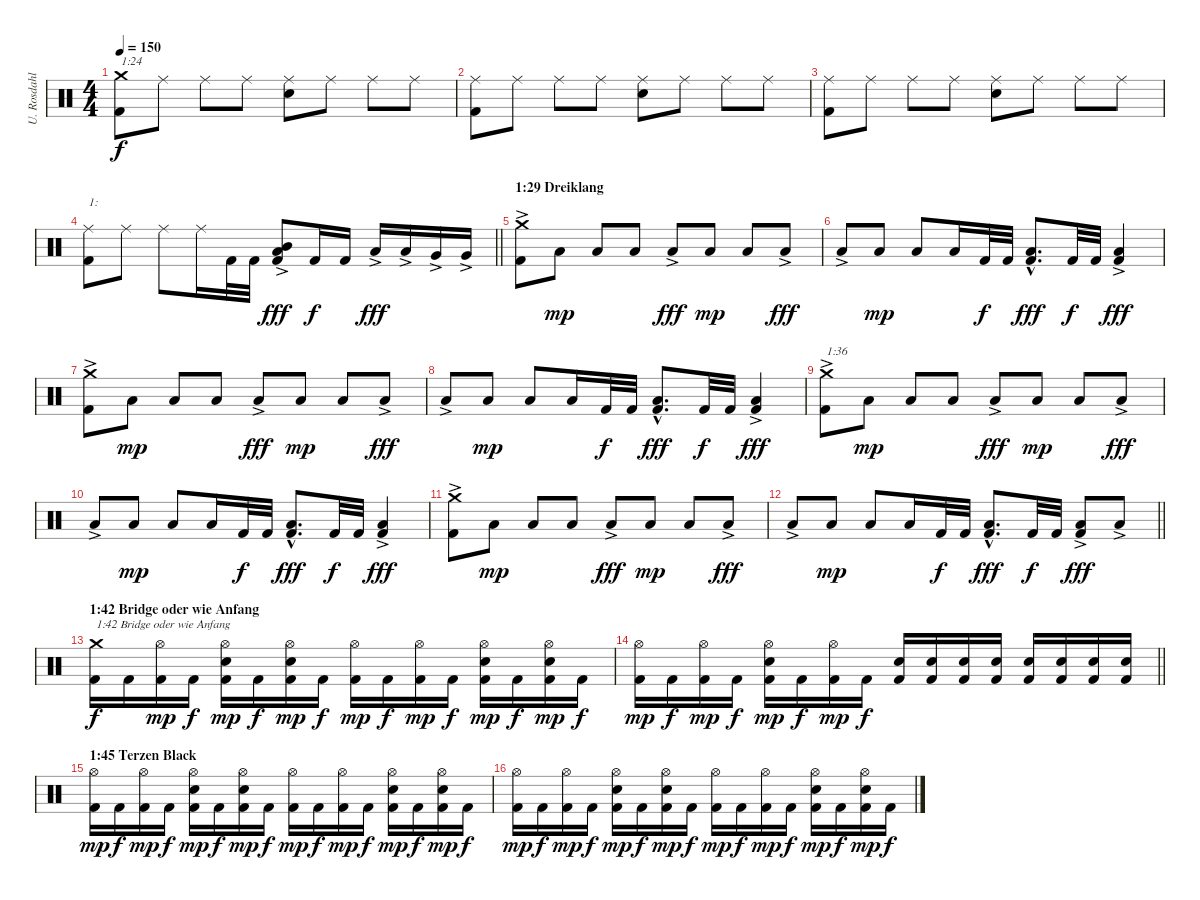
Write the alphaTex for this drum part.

\track ("U. Rosdahl" "U. Rosdahl") {instrument percussion}
\staff {score}
\articulation defaults
\ts (4 4)
\tempo 150
\clef neutral
\ks c
("Kick (hit) 2" "Crash medium (hit)").8{txt "1:24" dy f} "Ride (middle)".8 "Ride (middle)".8 "Ride (middle)".8 ("Electric Snare (hit)" "Ride (middle)").8 "Ride (middle)".8 "Ride (middle)".8 "Ride (middle)".8 |
("Kick (hit) 2" "Ride (middle)").8 "Ride (middle)".8 "Ride (middle)".8 "Ride (middle)".8 ("Electric Snare (hit)" "Ride (middle)").8 "Ride (middle)".8 "Ride (middle)".8 "Ride (middle)".8 |
("Kick (hit) 2" "Ride (middle)").8 "Ride (middle)".8 "Ride (middle)".8 "Ride (middle)".8 ("Electric Snare (hit)" "Ride (middle)").8 "Ride (middle)".8 "Ride (middle)".8 "Ride (middle)".8 |
\barLineRight lightlight
("Kick (hit) 2" "Ride (middle)").8{txt "1:"} "Ride (middle)".8 "Ride (middle)".8 "Ride (middle)".16 "Kick (hit) 2".32 "Kick (hit) 2".32 ("Kick (hit) 2" "Low Tom (hit)"{ac} "Mid Tom (hit)"{ac}).8{dy fff} "Kick (hit) 2".16{dy f} "Kick (hit) 2".16 "Low Tom (hit)"{ac}.16{dy fff} "Low Tom (hit)"{ac}.16 "Very Low Tom (hit)"{ac}.16 "Very Low Tom (hit)"{ac}.16 |
\section ("" "1:29 Dreiklang")
("Kick (hit) 2" "Crash medium (hit)"{ac}).8 "Low Tom (hit)".8{dy mp} "Low Tom (hit)".8 "Low Tom (hit)".8 "Low Tom (hit)"{ac}.8{dy fff} "Low Tom (hit)".8{dy mp} "Low Tom (hit)".8 "Low Tom (hit)"{ac}.8{dy fff} |
"Low Tom (hit)"{ac}.8 "Low Tom (hit)".8{dy mp} "Low Tom (hit)".8 "Low Tom (hit)".16 "Kick (hit) 2".32{dy f} "Kick (hit) 2".32 ("Kick (hit) 2"{hac} "Low Tom (hit)"{hac}).8{d dy fff} "Kick (hit) 2".32{dy f} "Kick (hit) 2".32 ("Kick (hit) 2" "Low Tom (hit)"{ac}).4{dy fff} |
("Kick (hit) 2" "Crash medium (hit)"{ac}).8 "Low Tom (hit)".8{dy mp} "Low Tom (hit)".8 "Low Tom (hit)".8 "Low Tom (hit)"{ac}.8{dy fff} "Low Tom (hit)".8{dy mp} "Low Tom (hit)".8 "Low Tom (hit)"{ac}.8{dy fff} |
"Low Tom (hit)"{ac}.8 "Low Tom (hit)".8{dy mp} "Low Tom (hit)".8 "Low Tom (hit)".16 "Kick (hit) 2".32{dy f} "Kick (hit) 2".32 ("Kick (hit) 2"{hac} "Low Tom (hit)"{hac}).8{d dy fff} "Kick (hit) 2".32{dy f} "Kick (hit) 2".32 ("Kick (hit) 2" "Low Tom (hit)"{ac}).4{dy fff} |
("Kick (hit) 2" "Crash medium (hit)"{ac}).8{txt "1:36"} "Low Tom (hit)".8{dy mp} "Low Tom (hit)".8 "Low Tom (hit)".8 "Low Tom (hit)"{ac}.8{dy fff} "Low Tom (hit)".8{dy mp} "Low Tom (hit)".8 "Low Tom (hit)"{ac}.8{dy fff} |
"Low Tom (hit)"{ac}.8 "Low Tom (hit)".8{dy mp} "Low Tom (hit)".8 "Low Tom (hit)".16 "Kick (hit) 2".32{dy f} "Kick (hit) 2".32 ("Kick (hit) 2"{hac} "Low Tom (hit)"{hac}).8{d dy fff} "Kick (hit) 2".32{dy f} "Kick (hit) 2".32 ("Kick (hit) 2" "Low Tom (hit)"{ac}).4{dy fff} |
("Kick (hit) 2" "Crash medium (hit)"{ac}).8 "Low Tom (hit)".8{dy mp} "Low Tom (hit)".8 "Low Tom (hit)".8 "Low Tom (hit)"{ac}.8{dy fff} "Low Tom (hit)".8{dy mp} "Low Tom (hit)".8 "Low Tom (hit)"{ac}.8{dy fff} |
\barLineRight lightlight "Low Tom (hit)"{ac}.8 "Low Tom (hit)".8{dy mp} "Low Tom (hit)".8 "Low Tom (hit)".16 "Kick (hit) 2".32{dy f} "Kick (hit) 2".32
("Kick (hit) 2"{hac} "Low Tom (hit)"{hac}).8{d dy fff} "Kick (hit) 2".32{dy f} "Kick (hit) 2".32 ("Kick (hit) 2" "Low Tom (hit)"{ac}).8{dy fff} "Low Tom (hit)"{ac}.8 |
\section ("" "1:42 Bridge oder wie Anfang")
("Kick (hit) 2" "Crash medium (hit)").16{txt "1:42 Bridge oder wie Anfang" dy f} "Kick (hit) 2".16 ("Kick (hit) 2" "Hi-Hat (open)").16{dy mp} "Kick (hit) 2".16{dy f} ("Kick (hit) 2" "Electric Snare (hit)" "Hi-Hat (open)").16{dy mp} "Kick (hit) 2".16{dy f} ("Kick (hit) 2" "Electric Snare (hit)" "Hi-Hat (open)").16{dy mp} "Kick (hit) 2".16{dy f} ("Kick (hit) 2" "Hi-Hat (open)").16{dy mp} "Kick (hit) 2".16{dy f} ("Kick (hit) 2" "Hi-Hat (open)").16{dy mp} "Kick (hit) 2".16{dy f} ("Kick (hit) 2" "Electric Snare (hit)" "Hi-Hat (open)").16{dy mp} "Kick (hit) 2".16{dy f} ("Kick (hit) 2" "Electric Snare (hit)" "Hi-Hat (open)").16{dy mp} "Kick (hit) 2".16{dy f} |
\barLineRight lightlight
("Kick (hit) 2" "Hi-Hat (open)").16{dy mp} "Kick (hit) 2".16{dy f} ("Kick (hit) 2" "Hi-Hat (open)").16{dy mp} "Kick (hit) 2".16{dy f} ("Kick (hit) 2" "Electric Snare (hit)" "Hi-Hat (open)").16{dy mp} "Kick (hit) 2".16{dy f} ("Kick (hit) 2" "Hi-Hat (open)").16{dy mp} "Kick (hit) 2".16{dy f} ("Kick (hit) 2" "Electric Snare (hit)").16 ("Kick (hit) 2" "Electric Snare (hit)").16 ("Kick (hit) 2" "Electric Snare (hit)").16 ("Kick (hit) 2" "Electric Snare (hit)").16 ("Kick (hit) 2" "Electric Snare (hit)").16 ("Kick (hit) 2" "Electric Snare (hit)").16 ("Kick (hit) 2" "Electric Snare (hit)").16 ("Kick (hit) 2" "Electric Snare (hit)").16 |
\section ("" "1:45 Terzen Black")
("Kick (hit) 2" "Hi-Hat (open)").16{dy mp} "Kick (hit) 2".16{dy f} ("Kick (hit) 2" "Hi-Hat (open)").16{dy mp} "Kick (hit) 2".16{dy f} ("Kick (hit) 2" "Electric Snare (hit)" "Hi-Hat (open)").16{dy mp} "Kick (hit) 2".16{dy f} ("Kick (hit) 2" "Electric Snare (hit)" "Hi-Hat (open)").16{dy mp} "Kick (hit) 2".16{dy f} ("Kick (hit) 2" "Hi-Hat (open)").16{dy mp} "Kick (hit) 2".16{dy f} ("Kick (hit) 2" "Hi-Hat (open)").16{dy mp} "Kick (hit) 2".16{dy f} ("Kick (hit) 2" "Electric Snare (hit)" "Hi-Hat (open)").16{dy mp} "Kick (hit) 2".16{dy f} ("Kick (hit) 2" "Electric Snare (hit)" "Hi-Hat (open)").16{dy mp} "Kick (hit) 2".16{dy f} |
("Kick (hit) 2" "Hi-Hat (open)").16{dy mp} "Kick (hit) 2".16{dy f} ("Kick (hit) 2" "Hi-Hat (open)").16{dy mp} "Kick (hit) 2".16{dy f} ("Kick (hit) 2" "Electric Snare (hit)" "Hi-Hat (open)").16{dy mp} "Kick (hit) 2".16{dy f} ("Kick (hit) 2" "Electric Snare (hit)" "Hi-Hat (open)").16{dy mp} "Kick (hit) 2".16{dy f} ("Kick (hit) 2" "Hi-Hat (open)").16{dy mp} "Kick (hit) 2".16{dy f} ("Kick (hit) 2" "Hi-Hat (open)").16{dy mp} "Kick (hit) 2".16{dy f} ("Kick (hit) 2" "Electric Snare (hit)" "Hi-Hat (open)").16{dy mp} "Kick (hit) 2".16{dy f} ("Kick (hit) 2" "Electric Snare (hit)" "Hi-Hat (open)").16{dy mp} "Kick (hit) 2".16{dy f}
